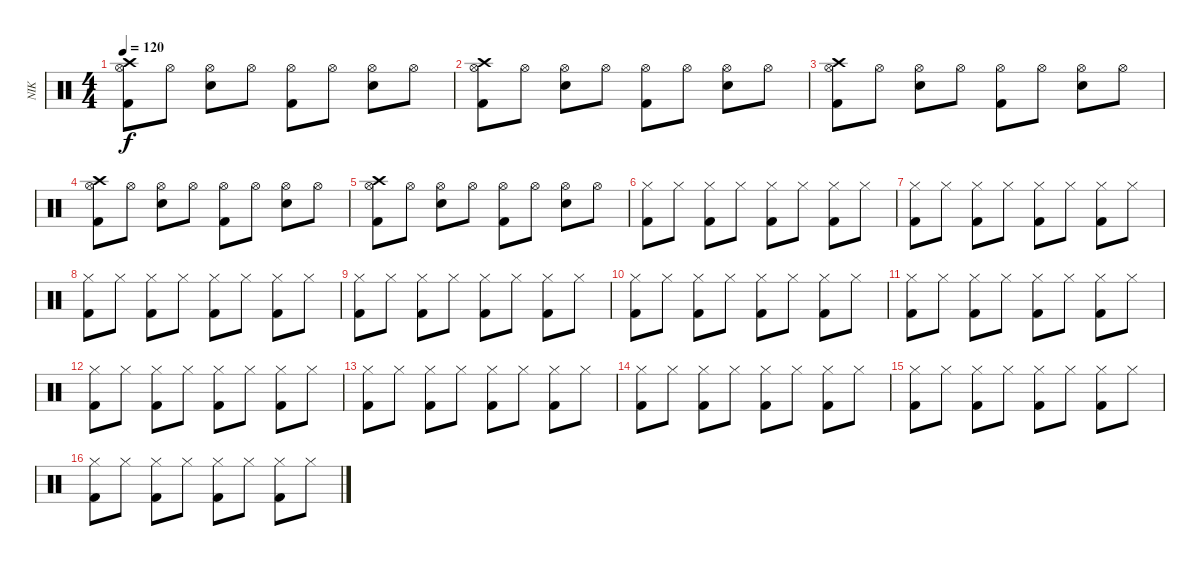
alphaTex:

\track ("NIK" "NIK") {instrument percussion}
\staff {score}
\articulation defaults
\ts (4 4)
\tempo 120
\clef neutral
\ks c
("Kick (hit) 2" "Crash high (hit)" "Hi-Hat (open)").8{dy f} "Hi-Hat (open)".8 ("Snare (hit) 2" "Hi-Hat (open)").8 "Hi-Hat (open)".8 ("Kick (hit) 2" "Hi-Hat (open)").8 "Hi-Hat (open)".8 ("Snare (hit) 2" "Hi-Hat (open)").8 "Hi-Hat (open)".8 |
("Kick (hit) 2" "Crash high (hit)" "Hi-Hat (open)").8 "Hi-Hat (open)".8 ("Snare (hit) 2" "Hi-Hat (open)").8 "Hi-Hat (open)".8 ("Kick (hit) 2" "Hi-Hat (open)").8 "Hi-Hat (open)".8 ("Snare (hit) 2" "Hi-Hat (open)").8 "Hi-Hat (open)".8 |
("Kick (hit) 2" "Crash high (hit)" "Hi-Hat (open)").8 "Hi-Hat (open)".8 ("Snare (hit) 2" "Hi-Hat (open)").8 "Hi-Hat (open)".8 ("Kick (hit) 2" "Hi-Hat (open)").8 "Hi-Hat (open)".8 ("Snare (hit) 2" "Hi-Hat (open)").8 "Hi-Hat (open)".8 |
("Kick (hit) 2" "Crash high (hit)" "Hi-Hat (open)").8 "Hi-Hat (open)".8 ("Snare (hit) 2" "Hi-Hat (open)").8 "Hi-Hat (open)".8 ("Kick (hit) 2" "Hi-Hat (open)").8 "Hi-Hat (open)".8 ("Snare (hit) 2" "Hi-Hat (open)").8 "Hi-Hat (open)".8 |
("Kick (hit) 2" "Crash high (hit)" "Hi-Hat (open)").8 "Hi-Hat (open)".8 ("Snare (hit) 2" "Hi-Hat (open)").8 "Hi-Hat (open)".8 ("Kick (hit) 2" "Hi-Hat (open)").8 "Hi-Hat (open)".8 ("Snare (hit) 2" "Hi-Hat (open)").8 "Hi-Hat (open)".8 |
("Hi-Hat (closed)" "Kick (hit) 2").8 "Hi-Hat (closed)".8 ("Hi-Hat (closed)" "Kick (hit) 2").8 "Hi-Hat (closed)".8 ("Hi-Hat (closed)" "Kick (hit) 2").8 "Hi-Hat (closed)".8 ("Hi-Hat (closed)" "Kick (hit) 2").8 "Hi-Hat (closed)".8 |
("Hi-Hat (closed)" "Kick (hit) 2").8 "Hi-Hat (closed)".8 ("Hi-Hat (closed)" "Kick (hit) 2").8 "Hi-Hat (closed)".8 ("Hi-Hat (closed)" "Kick (hit) 2").8 "Hi-Hat (closed)".8 ("Hi-Hat (closed)" "Kick (hit) 2").8 "Hi-Hat (closed)".8 |
("Hi-Hat (closed)" "Kick (hit) 2").8 "Hi-Hat (closed)".8 ("Hi-Hat (closed)" "Kick (hit) 2").8 "Hi-Hat (closed)".8 ("Hi-Hat (closed)" "Kick (hit) 2").8 "Hi-Hat (closed)".8 ("Hi-Hat (closed)" "Kick (hit) 2").8 "Hi-Hat (closed)".8 |
("Hi-Hat (closed)" "Kick (hit) 2").8 "Hi-Hat (closed)".8 ("Hi-Hat (closed)" "Kick (hit) 2").8 "Hi-Hat (closed)".8 ("Hi-Hat (closed)" "Kick (hit) 2").8 "Hi-Hat (closed)".8 ("Hi-Hat (closed)" "Kick (hit) 2").8 "Hi-Hat (closed)".8 |
("Hi-Hat (closed)" "Kick (hit) 2").8 "Hi-Hat (closed)".8 ("Hi-Hat (closed)" "Kick (hit) 2").8 "Hi-Hat (closed)".8 ("Hi-Hat (closed)" "Kick (hit) 2").8 "Hi-Hat (closed)".8 ("Hi-Hat (closed)" "Kick (hit) 2").8 "Hi-Hat (closed)".8 |
("Hi-Hat (closed)" "Kick (hit) 2").8 "Hi-Hat (closed)".8 ("Hi-Hat (closed)" "Kick (hit) 2").8 "Hi-Hat (closed)".8 ("Hi-Hat (closed)" "Kick (hit) 2").8 "Hi-Hat (closed)".8 ("Hi-Hat (closed)" "Kick (hit) 2").8 "Hi-Hat (closed)".8 |
("Hi-Hat (closed)" "Kick (hit) 2").8 "Hi-Hat (closed)".8 ("Hi-Hat (closed)" "Kick (hit) 2").8 "Hi-Hat (closed)".8 ("Hi-Hat (closed)" "Kick (hit) 2").8 "Hi-Hat (closed)".8 ("Hi-Hat (closed)" "Kick (hit) 2").8 "Hi-Hat (closed)".8 |
("Hi-Hat (closed)" "Kick (hit) 2").8 "Hi-Hat (closed)".8 ("Hi-Hat (closed)" "Kick (hit) 2").8 "Hi-Hat (closed)".8 ("Hi-Hat (closed)" "Kick (hit) 2").8 "Hi-Hat (closed)".8 ("Hi-Hat (closed)" "Kick (hit) 2").8 "Hi-Hat (closed)".8 |
("Hi-Hat (closed)" "Kick (hit) 2").8 "Hi-Hat (closed)".8 ("Hi-Hat (closed)" "Kick (hit) 2").8 "Hi-Hat (closed)".8 ("Hi-Hat (closed)" "Kick (hit) 2").8 "Hi-Hat (closed)".8 ("Hi-Hat (closed)" "Kick (hit) 2").8 "Hi-Hat (closed)".8 |
("Hi-Hat (closed)" "Kick (hit) 2").8 "Hi-Hat (closed)".8 ("Hi-Hat (closed)" "Kick (hit) 2").8 "Hi-Hat (closed)".8 ("Hi-Hat (closed)" "Kick (hit) 2").8 "Hi-Hat (closed)".8 ("Hi-Hat (closed)" "Kick (hit) 2").8 "Hi-Hat (closed)".8 |
("Hi-Hat (closed)" "Kick (hit) 2").8 "Hi-Hat (closed)".8 ("Hi-Hat (closed)" "Kick (hit) 2").8 "Hi-Hat (closed)".8 ("Hi-Hat (closed)" "Kick (hit) 2").8 "Hi-Hat (closed)".8 ("Hi-Hat (closed)" "Kick (hit) 2").8 "Hi-Hat (closed)".8
